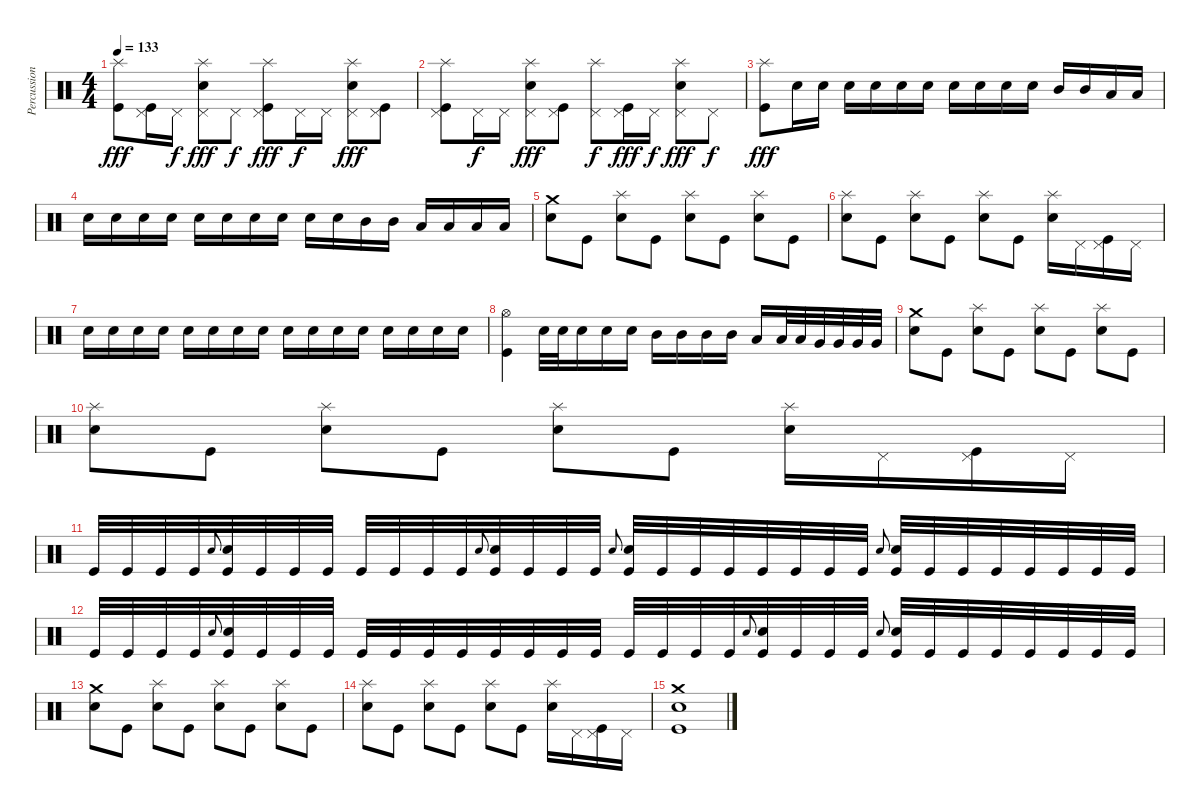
\track ("Percussion" "Percussion") {instrument percussion}
\staff {score}
\articulation defaults
\ts (4 4)
\tempo 133
\clef neutral
\ks c
("Splash (hit)" "Kick (hit)").8{dy fff} ("Pedal Hi-Hat (hit)" "Kick (hit)").16 "Pedal Hi-Hat (hit)".16{dy f} ("Snare (hit) 2" "Pedal Hi-Hat (hit)" "Splash (hit)").8{dy fff} "Pedal Hi-Hat (hit)".8{dy f} ("Pedal Hi-Hat (hit)" "Splash (hit)" "Kick (hit)").8{dy fff} "Pedal Hi-Hat (hit)".16{dy f} "Pedal Hi-Hat (hit)".16 ("Snare (hit) 2" "Pedal Hi-Hat (hit)" "Splash (hit)").8{dy fff} ("Pedal Hi-Hat (hit)" "Kick (hit)").8 |
("Pedal Hi-Hat (hit)" "Splash (hit)" "Kick (hit)").8 "Pedal Hi-Hat (hit)".16{dy f} "Pedal Hi-Hat (hit)".16 ("Snare (hit) 2" "Pedal Hi-Hat (hit)" "Splash (hit)").8{dy fff} ("Pedal Hi-Hat (hit)" "Kick (hit)").8 ("Pedal Hi-Hat (hit)" "Splash (hit)").8{dy f} ("Pedal Hi-Hat (hit)" "Kick (hit)").16{dy fff} "Pedal Hi-Hat (hit)".16{dy f} ("Snare (hit) 2" "Pedal Hi-Hat (hit)" "Splash (hit)").8{dy fff} "Pedal Hi-Hat (hit)".8{dy f} |
("Splash (hit)" "Kick (hit)").8{dy fff} "Snare (hit) 2".16 "Snare (hit) 2".16 "Snare (hit) 2".16 "Snare (hit) 2".16 "Snare (hit) 2".16 "Snare (hit) 2".16 "Snare (hit) 2".16 "Snare (hit) 2".16 "Snare (hit) 2".16 "Snare (hit) 2".16 "Mid Tom (hit)".16 "Mid Tom (hit)".16 "Low Tom (hit)".16 "Low Tom (hit)".16 |
"Snare (hit) 2".16 "Snare (hit) 2".16 "Snare (hit) 2".16 "Snare (hit) 2".16 "Snare (hit) 2".16 "Snare (hit) 2".16 "Snare (hit) 2".16 "Snare (hit) 2".16 "Snare (hit) 2".16 "Snare (hit) 2".16 "Mid Tom (hit)".16 "Mid Tom (hit)".16 "Low Tom (hit)".16 "Low Tom (hit)".16 "Low Floor Tom (hit)".16 "Low Floor Tom (hit)".16 |
("Snare (hit) 2" "Crash medium (hit)").8 "Kick (hit)".8 ("Snare (hit) 2" "Splash (hit)").8 "Kick (hit)".8 ("Snare (hit) 2" "Splash (hit)").8 "Kick (hit)".8 ("Snare (hit) 2" "Splash (hit)").8 "Kick (hit)".8 |
("Snare (hit) 2" "Splash (hit)").8 "Kick (hit)".8 ("Snare (hit) 2" "Splash (hit)").8 "Kick (hit)".8 ("Snare (hit) 2" "Splash (hit)").8 "Kick (hit)".8 ("Snare (hit) 2" "Splash (hit)").16 "Pedal Hi-Hat (hit)".16 ("Pedal Hi-Hat (hit)" "Kick (hit)").16 "Pedal Hi-Hat (hit)".16 |
"Snare (hit) 2".16 "Snare (hit) 2".16 "Snare (hit) 2".16 "Snare (hit) 2".16 "Snare (hit) 2".16 "Snare (hit) 2".16 "Snare (hit) 2".16 "Snare (hit) 2".16 "Snare (hit) 2".16 "Snare (hit) 2".16 "Snare (hit) 2".16 "Snare (hit) 2".16 "Snare (hit) 2".16 "Snare (hit) 2".16 "Snare (hit) 2".16 "Snare (hit) 2".16 |
("Hi-Hat (open)" "Kick (hit)").4 "Snare (hit) 2".32 "Snare (hit) 2".32 "Snare (hit) 2".16 "Snare (hit) 2".16 "Snare (hit) 2".16 "Mid Tom (hit)".16 "Mid Tom (hit)".16 "Mid Tom (hit)".16 "Mid Tom (hit)".16 "Low Tom (hit)".16 "Low Tom (hit)".32 "Low Tom (hit)".32 "Very Low Tom (hit)".32 "Very Low Tom (hit)".32 "Very Low Tom (hit)".32 "Very Low Tom (hit)".32 |
("Snare (hit) 2" "Crash medium (hit)").8 "Kick (hit)".8 ("Snare (hit) 2" "Splash (hit)").8 "Kick (hit)".8 ("Snare (hit) 2" "Splash (hit)").8 "Kick (hit)".8 ("Snare (hit) 2" "Splash (hit)").8 "Kick (hit)".8 |
("Snare (hit) 2" "Splash (hit)").8 "Kick (hit)".8 ("Snare (hit) 2" "Splash (hit)").8 "Kick (hit)".8 ("Snare (hit) 2" "Splash (hit)").8 "Kick (hit)".8 ("Snare (hit) 2" "Splash (hit)").16 "Pedal Hi-Hat (hit)".16 ("Pedal Hi-Hat (hit)" "Kick (hit)").16 "Pedal Hi-Hat (hit)".16 |
"Kick (hit)".32 "Kick (hit)".32 "Kick (hit)".32 "Kick (hit)".32 "Snare (hit) 2".8{gr onbeat} ("Snare (hit) 2" "Kick (hit)").32 "Kick (hit)".32 "Kick (hit)".32 "Kick (hit)".32 "Kick (hit)".32 "Kick (hit)".32 "Kick (hit)".32 "Kick (hit)".32 "Snare (hit) 2".8{gr onbeat} ("Snare (hit) 2" "Kick (hit)").32 "Kick (hit)".32 "Kick (hit)".32 "Kick (hit)".32 "Snare (hit) 2".8{gr onbeat} ("Snare (hit) 2" "Kick (hit)").32 "Kick (hit)".32 "Kick (hit)".32 "Kick (hit)".32 "Kick (hit)".32 "Kick (hit)".32 "Kick (hit)".32 "Kick (hit)".32 "Snare (hit) 2".8{gr onbeat} ("Snare (hit) 2" "Kick (hit)").32 "Kick (hit)".32 "Kick (hit)".32 "Kick (hit)".32 "Kick (hit)".32 "Kick (hit)".32 "Kick (hit)".32 "Kick (hit)".32 |
"Kick (hit)".32 "Kick (hit)".32 "Kick (hit)".32 "Kick (hit)".32 "Snare (hit) 2".8{gr onbeat} ("Snare (hit) 2" "Kick (hit)").32 "Kick (hit)".32 "Kick (hit)".32 "Kick (hit)".32 "Kick (hit)".32 "Kick (hit)".32 "Kick (hit)".32 "Kick (hit)".32 "Kick (hit)".32 "Kick (hit)".32 "Kick (hit)".32 "Kick (hit)".32 "Kick (hit)".32 "Kick (hit)".32 "Kick (hit)".32 "Kick (hit)".32 "Snare (hit) 2".8{gr onbeat} ("Snare (hit) 2" "Kick (hit)").32 "Kick (hit)".32 "Kick (hit)".32 "Kick (hit)".32 "Snare (hit) 2".8{gr onbeat} ("Snare (hit) 2" "Kick (hit)").32 "Kick (hit)".32 "Kick (hit)".32 "Kick (hit)".32 "Kick (hit)".32 "Kick (hit)".32 "Kick (hit)".32 "Kick (hit)".32 |
("Snare (hit) 2" "Crash medium (hit)").8 "Kick (hit)".8 ("Snare (hit) 2" "Splash (hit)").8 "Kick (hit)".8 ("Snare (hit) 2" "Splash (hit)").8 "Kick (hit)".8 ("Snare (hit) 2" "Splash (hit)").8 "Kick (hit)".8 |
("Snare (hit) 2" "Splash (hit)").8 "Kick (hit)".8 ("Snare (hit) 2" "Splash (hit)").8 "Kick (hit)".8 ("Snare (hit) 2" "Splash (hit)").8 "Kick (hit)".8 ("Snare (hit) 2" "Splash (hit)").16 "Pedal Hi-Hat (hit)".16 ("Pedal Hi-Hat (hit)" "Kick (hit)").16 "Pedal Hi-Hat (hit)".16 |
("Snare (hit) 2" "Crash medium (hit)" "Kick (hit)").1
